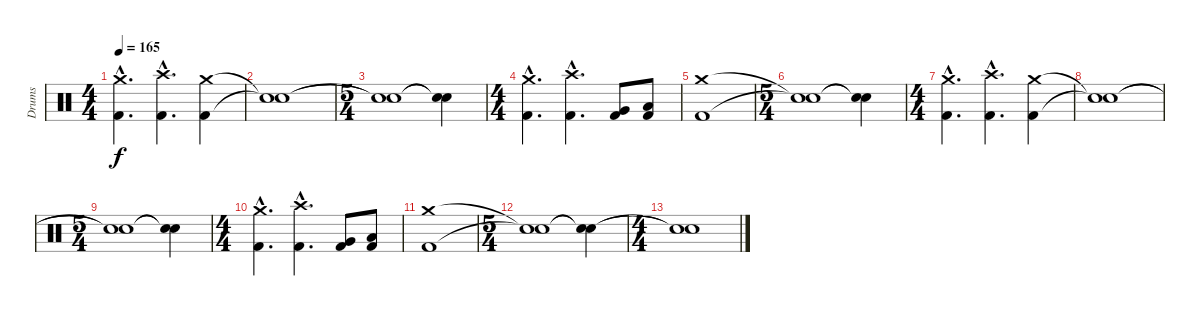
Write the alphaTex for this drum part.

\track ("Drums" "Drums") {instrument percussion}
\staff {score}
\articulation defaults
\ts (4 4)
\section ("" "")
\tempo 165
\clef neutral
\ks c
("Crash medium (hit)"{hac} "Kick (hit) 2"{hac}).4{d dy f} ("Crash high (hit)"{hac} "Kick (hit) 2"{hac}).4{d} ("Crash medium (hit)" "Kick (hit) 2").4 |
("Snare (hit)"{t} "Snare (hit)"{t}).1 |
\ts (5 4)
("Snare (hit)"{t} "Snare (hit)"{t}).1 ("Snare (hit)"{t} "Snare (hit)"{t}).4 |
\ts (4 4)
("Crash medium (hit)"{hac} "Kick (hit) 2"{hac}).4{d} ("Crash high (hit)"{hac} "Kick (hit) 2"{hac}).4{d} ("Very Low Tom (hit)" "Kick (hit) 2").8 ("Low Floor Tom (hit)" "Kick (hit) 2").8 |
("Crash medium (hit)" "Kick (hit) 2").1 |
\ts (5 4)
("Snare (hit)"{t} "Snare (hit)"{t}).1 ("Snare (hit)"{t} "Snare (hit)"{t}).4 |
\ts (4 4)
("Crash medium (hit)"{hac} "Kick (hit) 2"{hac}).4{d} ("Crash high (hit)"{hac} "Kick (hit) 2"{hac}).4{d} ("Crash medium (hit)" "Kick (hit) 2").4 |
("Snare (hit)"{t} "Snare (hit)"{t}).1 |
\ts (5 4)
("Snare (hit)"{t} "Snare (hit)"{t}).1 ("Snare (hit)"{t} "Snare (hit)"{t}).4 |
\ts (4 4)
("Crash medium (hit)"{hac} "Kick (hit) 2"{hac}).4{d} ("Crash high (hit)"{hac} "Kick (hit) 2"{hac}).4{d} ("Very Low Tom (hit)" "Kick (hit) 2").8 ("Low Floor Tom (hit)" "Kick (hit) 2").8 |
("Crash medium (hit)" "Kick (hit) 2").1 |
\ts (5 4)
("Snare (hit)"{t} "Snare (hit)"{t}).1 ("Snare (hit)"{t} "Snare (hit)"{t}).4 |
\ts (4 4)
("Snare (hit)"{t} "Snare (hit)"{t}).1
